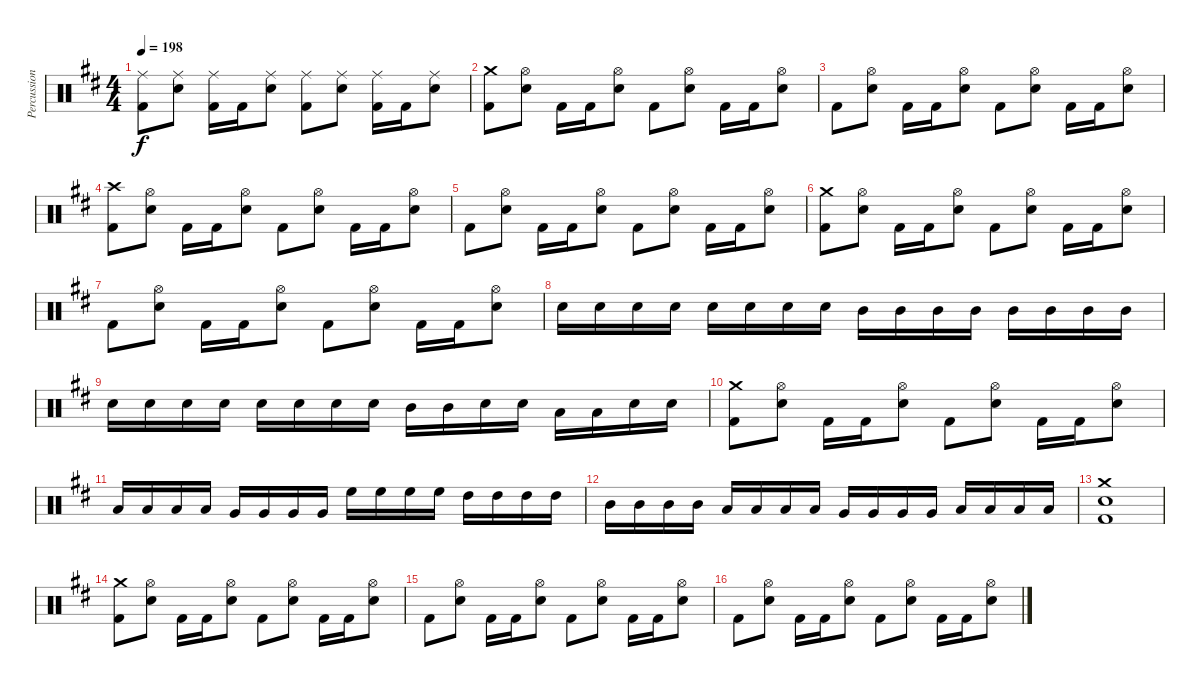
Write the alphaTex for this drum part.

\track ("Percussion" "Percussion") {instrument percussion}
\staff {score}
\articulation defaults
\ts (4 4)
\tempo 198
\clef neutral
\ks bminor
("Ride (middle)" "Kick (hit) 2").8{dy f} ("Ride (middle)" "Snare (hit) 2").8 ("Ride (middle)" "Kick (hit) 2").16 "Kick (hit) 2".16 ("Ride (middle)" "Snare (hit) 2").8 ("Ride (middle)" "Kick (hit) 2").8 ("Ride (middle)" "Snare (hit) 2").8 ("Ride (middle)" "Kick (hit) 2").16 "Kick (hit) 2".16 ("Ride (middle)" "Snare (hit) 2").8 |
("Crash medium (hit)" "Kick (hit) 2").8 ("Hi-Hat (open)" "Snare (hit) 2").8 "Kick (hit) 2".16 "Kick (hit) 2".16 ("Hi-Hat (open)" "Snare (hit) 2").8 "Kick (hit) 2".8 ("Hi-Hat (open)" "Snare (hit) 2").8 "Kick (hit) 2".16 "Kick (hit) 2".16 ("Hi-Hat (open)" "Snare (hit) 2").8 |
"Kick (hit) 2".8 ("Hi-Hat (open)" "Snare (hit) 2").8 "Kick (hit) 2".16 "Kick (hit) 2".16 ("Hi-Hat (open)" "Snare (hit) 2").8 "Kick (hit) 2".8 ("Hi-Hat (open)" "Snare (hit) 2").8 "Kick (hit) 2".16 "Kick (hit) 2".16 ("Hi-Hat (open)" "Snare (hit) 2").8 |
("Crash high (hit)" "Kick (hit) 2").8 ("Hi-Hat (open)" "Snare (hit) 2").8 "Kick (hit) 2".16 "Kick (hit) 2".16 ("Hi-Hat (open)" "Snare (hit) 2").8 "Kick (hit) 2".8 ("Hi-Hat (open)" "Snare (hit) 2").8 "Kick (hit) 2".16 "Kick (hit) 2".16 ("Hi-Hat (open)" "Snare (hit) 2").8 |
"Kick (hit) 2".8 ("Hi-Hat (open)" "Snare (hit) 2").8 "Kick (hit) 2".16 "Kick (hit) 2".16 ("Hi-Hat (open)" "Snare (hit) 2").8 "Kick (hit) 2".8 ("Hi-Hat (open)" "Snare (hit) 2").8 "Kick (hit) 2".16 "Kick (hit) 2".16 ("Hi-Hat (open)" "Snare (hit) 2").8 |
("Crash medium (hit)" "Kick (hit) 2").8 ("Hi-Hat (open)" "Snare (hit) 2").8 "Kick (hit) 2".16 "Kick (hit) 2".16 ("Hi-Hat (open)" "Snare (hit) 2").8 "Kick (hit) 2".8 ("Hi-Hat (open)" "Snare (hit) 2").8 "Kick (hit) 2".16 "Kick (hit) 2".16 ("Hi-Hat (open)" "Snare (hit) 2").8 |
"Kick (hit) 2".8 ("Hi-Hat (open)" "Snare (hit) 2").8 "Kick (hit) 2".16 "Kick (hit) 2".16 ("Hi-Hat (open)" "Snare (hit) 2").8 "Kick (hit) 2".8 ("Hi-Hat (open)" "Snare (hit) 2").8 "Kick (hit) 2".16 "Kick (hit) 2".16 ("Hi-Hat (open)" "Snare (hit) 2").8 |
"Snare (hit) 2".16 "Snare (hit) 2".16 "Snare (hit) 2".16 "Snare (hit) 2".16 "Snare (hit) 2".16 "Snare (hit) 2".16 "Snare (hit) 2".16 "Snare (hit) 2".16 "Mid Tom (hit)".16 "Mid Tom (hit)".16 "Mid Tom (hit)".16 "Mid Tom (hit)".16 "Mid Tom (hit)".16 "Mid Tom (hit)".16 "Mid Tom (hit)".16 "Mid Tom (hit)".16 |
"Snare (hit) 2".16 "Snare (hit) 2".16 "Snare (hit) 2".16 "Snare (hit) 2".16 "Snare (hit) 2".16 "Snare (hit) 2".16 "Snare (hit) 2".16 "Snare (hit) 2".16 "Mid Tom (hit)".16 "Mid Tom (hit)".16 "Snare (hit) 2".16 "Snare (hit) 2".16 "Low Tom (hit)".16 "Low Tom (hit)".16 "Snare (hit) 2".16 "Snare (hit) 2".16 |
("Crash medium (hit)" "Kick (hit) 2").8 ("Hi-Hat (open)" "Snare (hit) 2").8 "Kick (hit) 2".16 "Kick (hit) 2".16 ("Hi-Hat (open)" "Snare (hit) 2").8 "Kick (hit) 2".8 ("Hi-Hat (open)" "Snare (hit) 2").8 "Kick (hit) 2".16 "Kick (hit) 2".16 ("Hi-Hat (open)" "Snare (hit) 2").8 |
"Low Floor Tom (hit)".16 "Low Floor Tom (hit)".16 "Low Floor Tom (hit)".16 "Low Floor Tom (hit)".16 "Very Low Tom (hit)".16 "Very Low Tom (hit)".16 "Very Low Tom (hit)".16 "Very Low Tom (hit)".16 "High Floor Tom (hit)".16 "High Floor Tom (hit)".16 "High Floor Tom (hit)".16 "High Floor Tom (hit)".16 "High Tom (hit)".16 "High Tom (hit)".16 "High Tom (hit)".16 "High Tom (hit)".16 |
"Mid Tom (hit)".16 "Mid Tom (hit)".16 "Mid Tom (hit)".16 "Mid Tom (hit)".16 "Low Tom (hit)".16 "Low Tom (hit)".16 "Low Tom (hit)".16 "Low Tom (hit)".16 "Very Low Tom (hit)".16 "Very Low Tom (hit)".16 "Very Low Tom (hit)".16 "Very Low Tom (hit)".16 "Low Floor Tom (hit)".16 "Low Floor Tom (hit)".16 "Low Floor Tom (hit)".16 "Low Floor Tom (hit)".16 |
("Crash medium (hit)" "Snare (hit) 2" "Kick (hit) 2").1 |
("Crash medium (hit)" "Kick (hit) 2").8 ("Hi-Hat (open)" "Snare (hit) 2").8 "Kick (hit) 2".16 "Kick (hit) 2".16 ("Hi-Hat (open)" "Snare (hit) 2").8 "Kick (hit) 2".8 ("Hi-Hat (open)" "Snare (hit) 2").8 "Kick (hit) 2".16 "Kick (hit) 2".16 ("Hi-Hat (open)" "Snare (hit) 2").8 |
"Kick (hit) 2".8 ("Hi-Hat (open)" "Snare (hit) 2").8 "Kick (hit) 2".16 "Kick (hit) 2".16 ("Hi-Hat (open)" "Snare (hit) 2").8 "Kick (hit) 2".8 ("Hi-Hat (open)" "Snare (hit) 2").8 "Kick (hit) 2".16 "Kick (hit) 2".16 ("Hi-Hat (open)" "Snare (hit) 2").8 |
"Kick (hit) 2".8 ("Hi-Hat (open)" "Snare (hit) 2").8 "Kick (hit) 2".16 "Kick (hit) 2".16 ("Hi-Hat (open)" "Snare (hit) 2").8 "Kick (hit) 2".8 ("Hi-Hat (open)" "Snare (hit) 2").8 "Kick (hit) 2".16 "Kick (hit) 2".16 ("Hi-Hat (open)" "Snare (hit) 2").8
